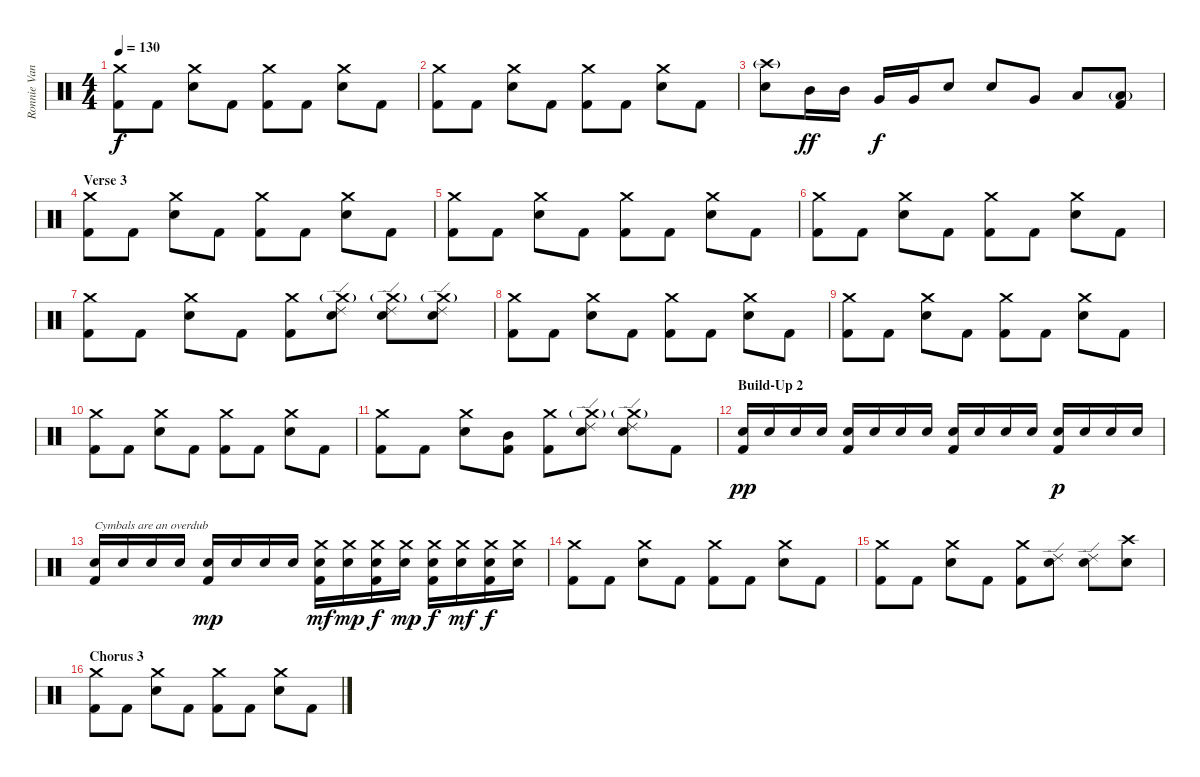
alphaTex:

\track ("Ronnie Vannucci Jr." "Ronnie Van") {instrument percussion}
\staff {score}
\articulation defaults
\ts (4 4)
\tempo 130
\clef neutral
\ks c
("Crash medium (hit)" "Kick (hit) 2").8{dy f} "Kick (hit) 2".8 ("Crash medium (hit)" "Electric Snare (hit)").8 "Kick (hit) 2".8 ("Crash medium (hit)" "Kick (hit) 2").8 "Kick (hit) 2".8 ("Crash medium (hit)" "Electric Snare (hit)").8 "Kick (hit) 2".8 |
("Crash medium (hit)" "Kick (hit) 2").8 "Kick (hit) 2".8 ("Crash medium (hit)" "Electric Snare (hit)").8 "Kick (hit) 2".8 ("Crash medium (hit)" "Kick (hit) 2").8 "Kick (hit) 2".8 ("Crash medium (hit)" "Electric Snare (hit)").8 "Kick (hit) 2".8 |
("Crash high (hit)"{g} "Electric Snare (hit)").8 "Mid Tom (hit)".16{dy ff} "Mid Tom (hit)".16 "Very Low Tom (hit)".16{dy f} "Very Low Tom (hit)".16 "Electric Snare (hit)".8 "Electric Snare (hit)".8 "Very Low Tom (hit)".8 "Low Floor Tom (hit)".8 ("Low Floor Tom (hit)"{g} "Kick (hit) 2").8 |
\section ("" "Verse 3")
("Crash medium (hit)" "Kick (hit) 2").8 "Kick (hit) 2".8 ("Crash medium (hit)" "Electric Snare (hit)").8 "Kick (hit) 2".8 ("Crash medium (hit)" "Kick (hit) 2").8 "Kick (hit) 2".8 ("Crash medium (hit)" "Electric Snare (hit)").8 "Kick (hit) 2".8 |
("Crash medium (hit)" "Kick (hit) 2").8 "Kick (hit) 2".8 ("Crash medium (hit)" "Electric Snare (hit)").8 "Kick (hit) 2".8 ("Crash medium (hit)" "Kick (hit) 2").8 "Kick (hit) 2".8 ("Crash medium (hit)" "Electric Snare (hit)").8 "Kick (hit) 2".8 |
("Crash medium (hit)" "Kick (hit) 2").8 "Kick (hit) 2".8 ("Crash medium (hit)" "Electric Snare (hit)").8 "Kick (hit) 2".8 ("Crash medium (hit)" "Kick (hit) 2").8 "Kick (hit) 2".8 ("Crash medium (hit)" "Electric Snare (hit)").8 "Kick (hit) 2".8 |
("Crash medium (hit)" "Kick (hit) 2").8 "Kick (hit) 2".8 ("Crash medium (hit)" "Electric Snare (hit)").8 "Kick (hit) 2".8 ("Crash medium (hit)" "Kick (hit) 2").8 ("Crash medium (hit)"{g} "Ride (edge) 2" "Electric Snare (hit)").8 ("Crash medium (hit)"{g} "Ride (edge) 2" "Electric Snare (hit)").8 ("Crash medium (hit)"{g} "Ride (edge) 2" "Electric Snare (hit)").8 |
("Crash medium (hit)" "Kick (hit) 2").8 "Kick (hit) 2".8 ("Crash medium (hit)" "Electric Snare (hit)").8 "Kick (hit) 2".8 ("Crash medium (hit)" "Kick (hit) 2").8 "Kick (hit) 2".8 ("Crash medium (hit)" "Electric Snare (hit)").8 "Kick (hit) 2".8 |
("Crash medium (hit)" "Kick (hit) 2").8 "Kick (hit) 2".8 ("Crash medium (hit)" "Electric Snare (hit)").8 "Kick (hit) 2".8 ("Crash medium (hit)" "Kick (hit) 2").8 "Kick (hit) 2".8 ("Crash medium (hit)" "Electric Snare (hit)").8 "Kick (hit) 2".8 |
("Crash medium (hit)" "Kick (hit) 2").8 "Kick (hit) 2".8 ("Crash medium (hit)" "Electric Snare (hit)").8 "Kick (hit) 2".8 ("Crash medium (hit)" "Kick (hit) 2").8 "Kick (hit) 2".8 ("Crash medium (hit)" "Electric Snare (hit)").8 "Kick (hit) 2".8 |
("Crash medium (hit)" "Kick (hit) 2").8 "Kick (hit) 2".8 ("Crash medium (hit)" "Electric Snare (hit)").8 ("Mid Tom (hit)" "Kick (hit) 2").8 ("Crash medium (hit)" "Kick (hit) 2").8 ("Crash medium (hit)"{g} "Ride (edge) 2" "Electric Snare (hit)").8 ("Crash medium (hit)"{g} "Ride (edge) 2" "Electric Snare (hit)").8 "Kick (hit) 2".8 |
\section ("" "Build-Up 2")
("Electric Snare (hit)" "Kick (hit) 2").16{dy pp} "Electric Snare (hit)".16 "Electric Snare (hit)".16 "Electric Snare (hit)".16 ("Electric Snare (hit)" "Kick (hit) 2").16 "Electric Snare (hit)".16 "Electric Snare (hit)".16 "Electric Snare (hit)".16 ("Electric Snare (hit)" "Kick (hit) 2").16 "Electric Snare (hit)".16 "Electric Snare (hit)".16 "Electric Snare (hit)".16 ("Electric Snare (hit)" "Kick (hit) 2").16{dy p} "Electric Snare (hit)".16 "Electric Snare (hit)".16 "Electric Snare (hit)".16 |
("Electric Snare (hit)" "Kick (hit) 2").16{txt "Cymbals are an overdub"} "Electric Snare (hit)".16 "Electric Snare (hit)".16 "Electric Snare (hit)".16 ("Electric Snare (hit)" "Kick (hit) 2").16{dy mp} "Electric Snare (hit)".16 "Electric Snare (hit)".16 "Electric Snare (hit)".16 ("Crash medium (hit)" "Electric Snare (hit)" "Kick (hit) 2").16{dy mf} ("Crash medium (hit)" "Electric Snare (hit)").16{dy mp} ("Crash medium (hit)" "Electric Snare (hit)" "Kick (hit) 2").16{dy f} ("Crash medium (hit)" "Electric Snare (hit)").16{dy mp} ("Crash medium (hit)" "Electric Snare (hit)" "Kick (hit) 2").16{dy f} ("Crash medium (hit)" "Electric Snare (hit)").16{dy mf} ("Crash medium (hit)" "Electric Snare (hit)" "Kick (hit) 2").16{dy f} ("Crash medium (hit)" "Electric Snare (hit)").16 |
("Crash medium (hit)" "Kick (hit) 2").8 "Kick (hit) 2".8 ("Crash medium (hit)" "Electric Snare (hit)").8 "Kick (hit) 2".8 ("Crash medium (hit)" "Kick (hit) 2").8 "Kick (hit) 2".8 ("Crash medium (hit)" "Electric Snare (hit)").8 "Kick (hit) 2".8 |
("Crash medium (hit)" "Kick (hit) 2").8 "Kick (hit) 2".8 ("Crash medium (hit)" "Electric Snare (hit)").8 "Kick (hit) 2".8 ("Crash medium (hit)" "Kick (hit) 2").8 ("Ride (edge) 2" "Electric Snare (hit)").8 ("Ride (edge) 2" "Electric Snare (hit)").8 ("Crash high (hit)" "Electric Snare (hit)").8 |
\section ("" "Chorus 3")
("Crash medium (hit)" "Kick (hit) 2").8 "Kick (hit) 2".8 ("Crash medium (hit)" "Electric Snare (hit)").8 "Kick (hit) 2".8 ("Crash medium (hit)" "Kick (hit) 2").8 "Kick (hit) 2".8 ("Crash medium (hit)" "Electric Snare (hit)").8 "Kick (hit) 2".8
